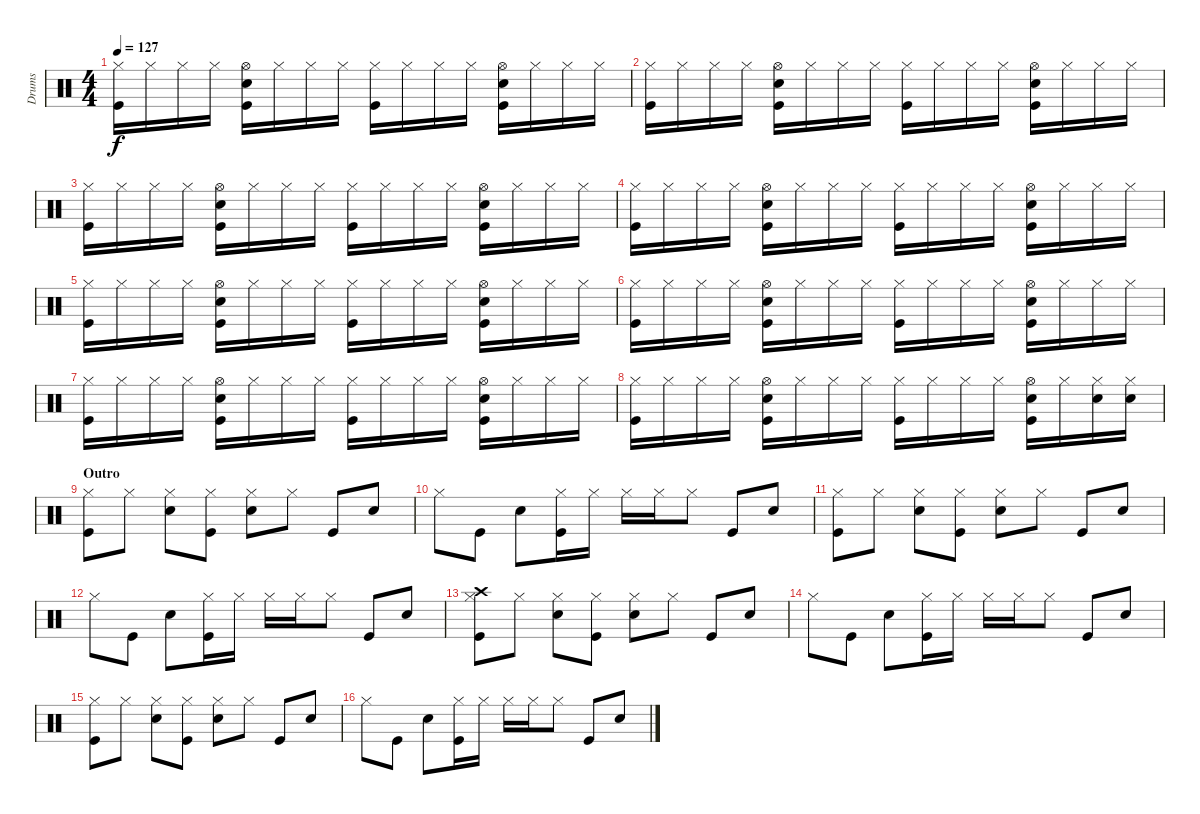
\track ("Drums" "Drums") {instrument percussion}
\staff {score}
\articulation defaults
\ts (4 4)
\tempo 127
\clef neutral
\ks c
("Hi-Hat (closed)" "Kick (hit)").16{dy f} "Hi-Hat (closed)".16 "Hi-Hat (closed)".16 "Hi-Hat (closed)".16 ("Hi-Hat (open)" "Snare (hit) 2" "Kick (hit)").16 "Hi-Hat (closed)".16 "Hi-Hat (closed)".16 "Hi-Hat (closed)".16 ("Hi-Hat (closed)" "Kick (hit)").16 "Hi-Hat (closed)".16 "Hi-Hat (closed)".16 "Hi-Hat (closed)".16 ("Hi-Hat (open)" "Snare (hit) 2" "Kick (hit)").16 "Hi-Hat (closed)".16 "Hi-Hat (closed)".16 "Hi-Hat (closed)".16 |
("Hi-Hat (closed)" "Kick (hit)").16 "Hi-Hat (closed)".16 "Hi-Hat (closed)".16 "Hi-Hat (closed)".16 ("Hi-Hat (open)" "Snare (hit) 2" "Kick (hit)").16 "Hi-Hat (closed)".16 "Hi-Hat (closed)".16 "Hi-Hat (closed)".16 ("Hi-Hat (closed)" "Kick (hit)").16 "Hi-Hat (closed)".16 "Hi-Hat (closed)".16 "Hi-Hat (closed)".16 ("Hi-Hat (open)" "Snare (hit) 2" "Kick (hit)").16 "Hi-Hat (closed)".16 "Hi-Hat (closed)".16 "Hi-Hat (closed)".16 |
("Hi-Hat (closed)" "Kick (hit)").16 "Hi-Hat (closed)".16 "Hi-Hat (closed)".16 "Hi-Hat (closed)".16 ("Hi-Hat (open)" "Snare (hit) 2" "Kick (hit)").16 "Hi-Hat (closed)".16 "Hi-Hat (closed)".16 "Hi-Hat (closed)".16 ("Hi-Hat (closed)" "Kick (hit)").16 "Hi-Hat (closed)".16 "Hi-Hat (closed)".16 "Hi-Hat (closed)".16 ("Hi-Hat (open)" "Snare (hit) 2" "Kick (hit)").16 "Hi-Hat (closed)".16 "Hi-Hat (closed)".16 "Hi-Hat (closed)".16 |
("Hi-Hat (closed)" "Kick (hit)").16 "Hi-Hat (closed)".16 "Hi-Hat (closed)".16 "Hi-Hat (closed)".16 ("Hi-Hat (open)" "Snare (hit) 2" "Kick (hit)").16 "Hi-Hat (closed)".16 "Hi-Hat (closed)".16 "Hi-Hat (closed)".16 ("Hi-Hat (closed)" "Kick (hit)").16 "Hi-Hat (closed)".16 "Hi-Hat (closed)".16 "Hi-Hat (closed)".16 ("Hi-Hat (open)" "Snare (hit) 2" "Kick (hit)").16 "Hi-Hat (closed)".16 "Hi-Hat (closed)".16 "Hi-Hat (closed)".16 |
("Hi-Hat (closed)" "Kick (hit)").16 "Hi-Hat (closed)".16 "Hi-Hat (closed)".16 "Hi-Hat (closed)".16 ("Hi-Hat (open)" "Snare (hit) 2" "Kick (hit)").16 "Hi-Hat (closed)".16 "Hi-Hat (closed)".16 "Hi-Hat (closed)".16 ("Hi-Hat (closed)" "Kick (hit)").16 "Hi-Hat (closed)".16 "Hi-Hat (closed)".16 "Hi-Hat (closed)".16 ("Hi-Hat (open)" "Snare (hit) 2" "Kick (hit)").16 "Hi-Hat (closed)".16 "Hi-Hat (closed)".16 "Hi-Hat (closed)".16 |
("Hi-Hat (closed)" "Kick (hit)").16 "Hi-Hat (closed)".16 "Hi-Hat (closed)".16 "Hi-Hat (closed)".16 ("Hi-Hat (open)" "Snare (hit) 2" "Kick (hit)").16 "Hi-Hat (closed)".16 "Hi-Hat (closed)".16 "Hi-Hat (closed)".16 ("Hi-Hat (closed)" "Kick (hit)").16 "Hi-Hat (closed)".16 "Hi-Hat (closed)".16 "Hi-Hat (closed)".16 ("Hi-Hat (open)" "Snare (hit) 2" "Kick (hit)").16 "Hi-Hat (closed)".16 "Hi-Hat (closed)".16 "Hi-Hat (closed)".16 |
("Hi-Hat (closed)" "Kick (hit)").16 "Hi-Hat (closed)".16 "Hi-Hat (closed)".16 "Hi-Hat (closed)".16 ("Hi-Hat (open)" "Snare (hit) 2" "Kick (hit)").16 "Hi-Hat (closed)".16 "Hi-Hat (closed)".16 "Hi-Hat (closed)".16 ("Hi-Hat (closed)" "Kick (hit)").16 "Hi-Hat (closed)".16 "Hi-Hat (closed)".16 "Hi-Hat (closed)".16 ("Hi-Hat (open)" "Snare (hit) 2" "Kick (hit)").16 "Hi-Hat (closed)".16 "Hi-Hat (closed)".16 "Hi-Hat (closed)".16 |
("Hi-Hat (closed)" "Kick (hit)").16 "Hi-Hat (closed)".16 "Hi-Hat (closed)".16 "Hi-Hat (closed)".16 ("Hi-Hat (open)" "Snare (hit) 2" "Kick (hit)").16 "Hi-Hat (closed)".16 "Hi-Hat (closed)".16 "Hi-Hat (closed)".16 ("Hi-Hat (closed)" "Kick (hit)").16 "Hi-Hat (closed)".16 "Hi-Hat (closed)".16 "Hi-Hat (closed)".16 ("Hi-Hat (open)" "Snare (hit) 2" "Kick (hit)").16 "Hi-Hat (closed)".16 ("Hi-Hat (closed)" "Snare (hit) 2").16 ("Hi-Hat (closed)" "Snare (hit) 2").16 |
\section ("" "Outro")
("Hi-Hat (closed)" "Kick (hit)").8 "Hi-Hat (closed)".8 ("Hi-Hat (closed)" "Snare (hit) 2").8 ("Hi-Hat (closed)" "Kick (hit)").8 ("Hi-Hat (closed)" "Snare (hit) 2").8 "Hi-Hat (closed)".8 "Kick (hit)".8 "Snare (hit) 2".8 |
"Hi-Hat (closed)".8 "Kick (hit)".8 "Snare (hit) 2".8 ("Hi-Hat (closed)" "Kick (hit)").16 "Hi-Hat (closed)".16 "Hi-Hat (closed)".16 "Hi-Hat (closed)".16 "Hi-Hat (closed)".8 "Kick (hit)".8 "Snare (hit) 2".8 |
("Hi-Hat (closed)" "Kick (hit)").8 "Hi-Hat (closed)".8 ("Hi-Hat (closed)" "Snare (hit) 2").8 ("Hi-Hat (closed)" "Kick (hit)").8 ("Hi-Hat (closed)" "Snare (hit) 2").8 "Hi-Hat (closed)".8 "Kick (hit)".8 "Snare (hit) 2".8 |
"Hi-Hat (closed)".8 "Kick (hit)".8 "Snare (hit) 2".8 ("Hi-Hat (closed)" "Kick (hit)").16 "Hi-Hat (closed)".16 "Hi-Hat (closed)".16 "Hi-Hat (closed)".16 "Hi-Hat (closed)".8 "Kick (hit)".8 "Snare (hit) 2".8 |
("Hi-Hat (closed)" "Crash high (hit)" "Kick (hit)").8 "Hi-Hat (closed)".8 ("Hi-Hat (closed)" "Snare (hit) 2").8 ("Hi-Hat (closed)" "Kick (hit)").8 ("Hi-Hat (closed)" "Snare (hit) 2").8 "Hi-Hat (closed)".8 "Kick (hit)".8 "Snare (hit) 2".8 |
"Hi-Hat (closed)".8 "Kick (hit)".8 "Snare (hit) 2".8 ("Hi-Hat (closed)" "Kick (hit)").16 "Hi-Hat (closed)".16 "Hi-Hat (closed)".16 "Hi-Hat (closed)".16 "Hi-Hat (closed)".8 "Kick (hit)".8 "Snare (hit) 2".8 |
("Hi-Hat (closed)" "Kick (hit)").8 "Hi-Hat (closed)".8 ("Hi-Hat (closed)" "Snare (hit) 2").8 ("Hi-Hat (closed)" "Kick (hit)").8 ("Hi-Hat (closed)" "Snare (hit) 2").8 "Hi-Hat (closed)".8 "Kick (hit)".8 "Snare (hit) 2".8 |
"Hi-Hat (closed)".8 "Kick (hit)".8 "Snare (hit) 2".8 ("Hi-Hat (closed)" "Kick (hit)").16 "Hi-Hat (closed)".16 "Hi-Hat (closed)".16 "Hi-Hat (closed)".16 "Hi-Hat (closed)".8 "Kick (hit)".8 "Snare (hit) 2".8
